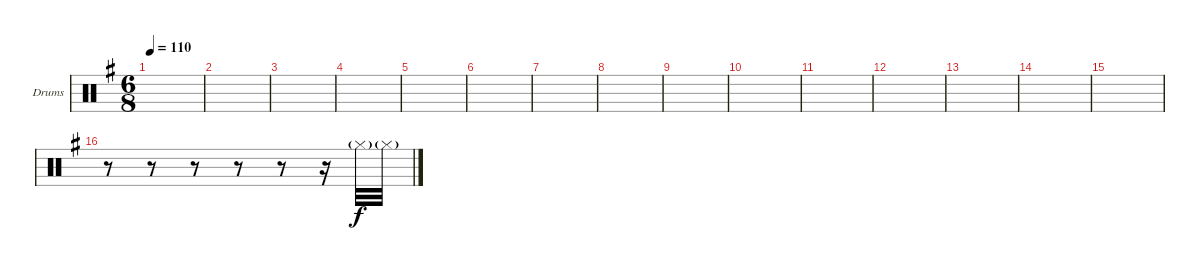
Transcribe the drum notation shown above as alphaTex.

\bracketExtendMode groupsimilarinstruments
\firstSystemTrackNameOrientation horizontal
\otherSystemsTrackNameOrientation horizontal
\track ("Drumkit" "Drums") {instrument percussion}
\staff {score}
\articulation defaults
\ts (6 8)
\tempo 110
\clef neutral
\ks eminor
|
|
|
|
|
|
|
|
|
|
|
|
|
|
|
r.8 r.8 r.8 r.8 r.8 r.16 "Hi-Hat (closed)"{g}.32 "Hi-Hat (closed)"{g}.32
